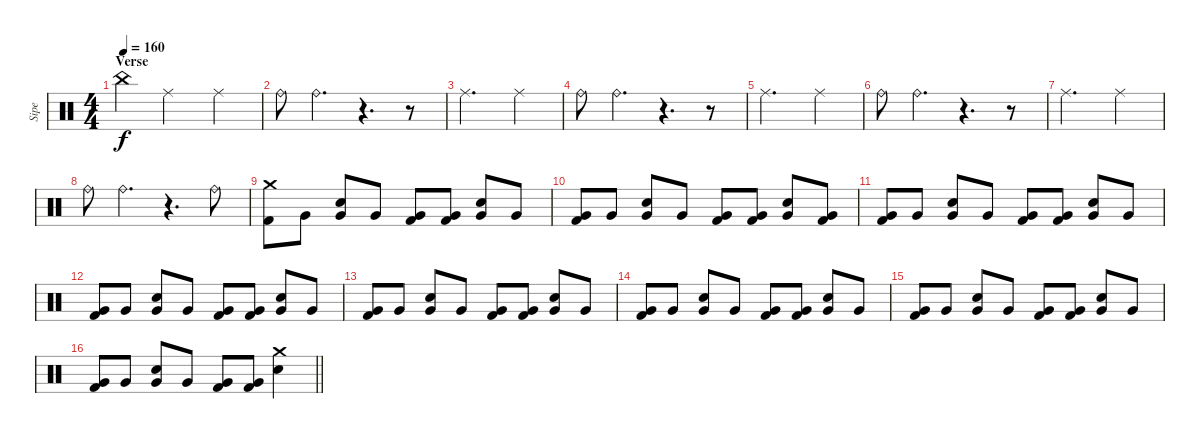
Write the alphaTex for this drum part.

\track ("Sipe" "Sipe") {instrument percussion}
\staff {score}
\articulation defaults
\ts (4 4)
\section ("" "Verse")
\tempo 160
\clef neutral
\ks c "China (hit)".4{dy f} "Ride (middle)".2 "Ride (middle)".4
|
"Ride (bell)".8 "Ride (bell)".4{d} r.4{d} r.8 |
"Ride (middle)".2{d} "Ride (middle)".4 |
"Ride (bell)".8 "Ride (bell)".4{d} r.4{d} r.8 |
"Ride (middle)".2{d} "Ride (middle)".4 |
"Ride (bell)".8 "Ride (bell)".4{d} r.4{d} r.8 |
"Ride (middle)".2{d} "Ride (middle)".4 |
"Ride (bell)".8 "Ride (bell)".4{d} r.4{d} "Ride (bell)".8 |
("Crash medium (hit)" "Kick (hit) 2").8 "Very Low Tom (hit)".8 ("Very Low Tom (hit)" "Snare (hit) 2").8 "Very Low Tom (hit)".8 ("Very Low Tom (hit)" "Kick (hit) 2").8 ("Very Low Tom (hit)" "Kick (hit) 2").8 ("Very Low Tom (hit)" "Snare (hit) 2").8 "Very Low Tom (hit)".8 |
("Very Low Tom (hit)" "Kick (hit) 2").8 "Very Low Tom (hit)".8 ("Very Low Tom (hit)" "Snare (hit) 2").8 "Very Low Tom (hit)".8 ("Very Low Tom (hit)" "Kick (hit) 2").8 ("Very Low Tom (hit)" "Kick (hit) 2").8 ("Very Low Tom (hit)" "Snare (hit) 2").8 ("Very Low Tom (hit)" "Kick (hit) 2").8 |
("Very Low Tom (hit)" "Kick (hit) 2").8 "Very Low Tom (hit)".8 ("Very Low Tom (hit)" "Snare (hit) 2").8 "Very Low Tom (hit)".8 ("Very Low Tom (hit)" "Kick (hit) 2").8 ("Very Low Tom (hit)" "Kick (hit) 2").8 ("Very Low Tom (hit)" "Snare (hit) 2").8 "Very Low Tom (hit)".8 |
("Very Low Tom (hit)" "Kick (hit) 2").8 "Very Low Tom (hit)".8 ("Very Low Tom (hit)" "Snare (hit) 2").8 "Very Low Tom (hit)".8 ("Very Low Tom (hit)" "Kick (hit) 2").8 ("Very Low Tom (hit)" "Kick (hit) 2").8 ("Very Low Tom (hit)" "Snare (hit) 2").8 "Very Low Tom (hit)".8 |
("Very Low Tom (hit)" "Kick (hit) 2").8 "Very Low Tom (hit)".8 ("Very Low Tom (hit)" "Snare (hit) 2").8 "Very Low Tom (hit)".8 ("Very Low Tom (hit)" "Kick (hit) 2").8 ("Very Low Tom (hit)" "Kick (hit) 2").8 ("Very Low Tom (hit)" "Snare (hit) 2").8 "Very Low Tom (hit)".8 |
("Very Low Tom (hit)" "Kick (hit) 2").8 "Very Low Tom (hit)".8 ("Very Low Tom (hit)" "Snare (hit) 2").8 "Very Low Tom (hit)".8 ("Very Low Tom (hit)" "Kick (hit) 2").8 ("Very Low Tom (hit)" "Kick (hit) 2").8 ("Very Low Tom (hit)" "Snare (hit) 2").8 "Very Low Tom (hit)".8 |
("Very Low Tom (hit)" "Kick (hit) 2").8 "Very Low Tom (hit)".8 ("Very Low Tom (hit)" "Snare (hit) 2").8 "Very Low Tom (hit)".8 ("Very Low Tom (hit)" "Kick (hit) 2").8 ("Very Low Tom (hit)" "Kick (hit) 2").8 ("Very Low Tom (hit)" "Snare (hit) 2").8 "Very Low Tom (hit)".8 |
\barLineRight lightlight
("Very Low Tom (hit)" "Kick (hit) 2").8 "Very Low Tom (hit)".8 ("Very Low Tom (hit)" "Snare (hit) 2").8 "Very Low Tom (hit)".8 ("Very Low Tom (hit)" "Kick (hit) 2").8 ("Very Low Tom (hit)" "Kick (hit) 2").8 ("Crash medium (hit)" "Snare (hit) 2").4
